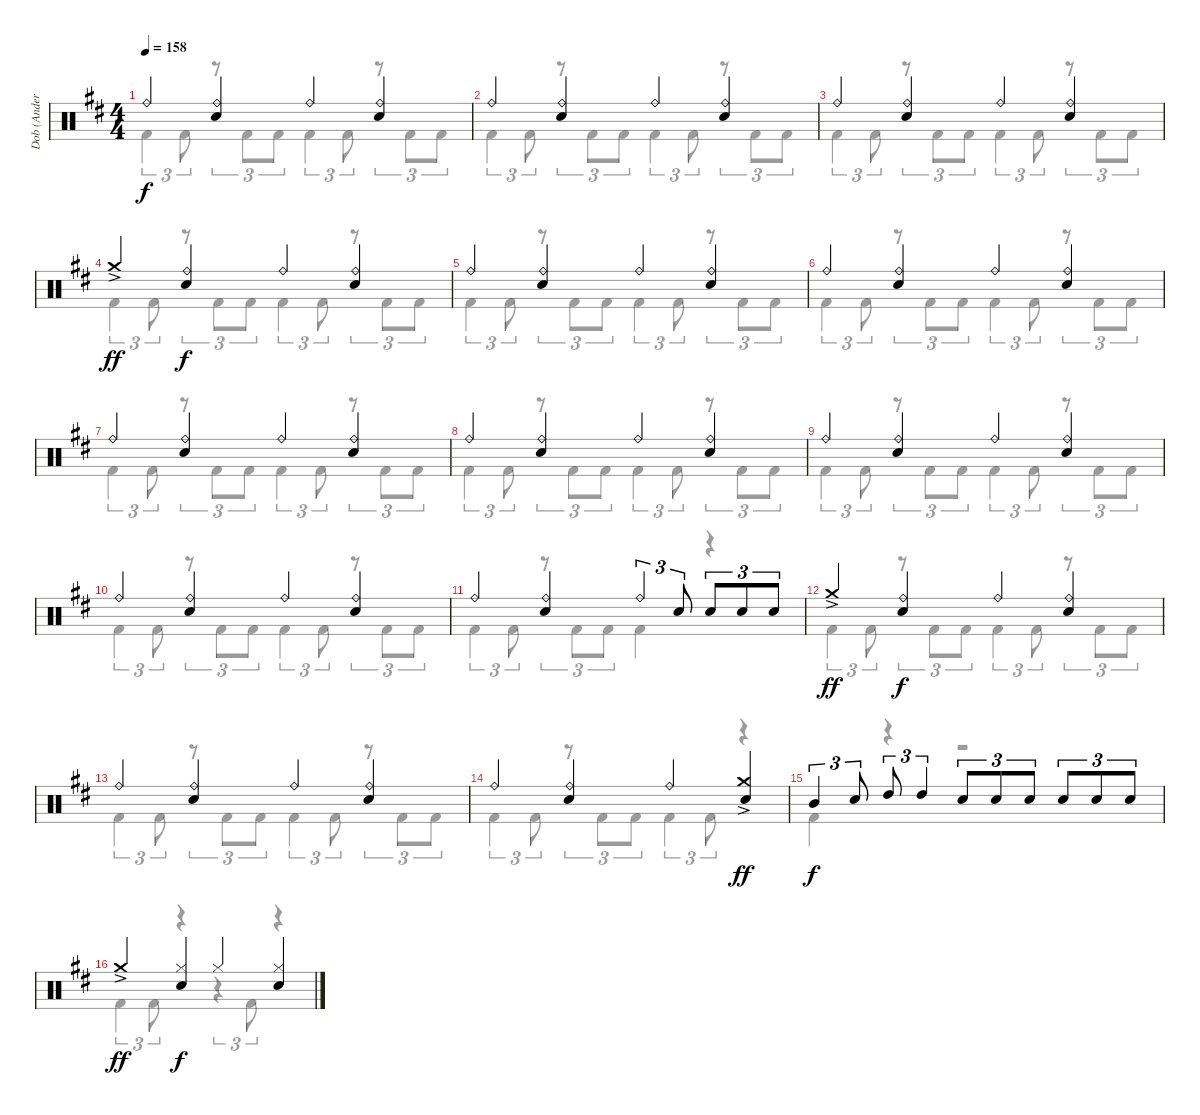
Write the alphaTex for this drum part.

\track ("Dob (Anders Johansson)" "Dob (Ander") {instrument percussion}
\staff {score}
\articulation defaults
\voice
\ts (4 4)
\tempo 158
\clef neutral
\ks d "Ride (bell)".4{dy f}
("Ride (bell)" "Electric Snare (hit)").4 "Ride (bell)".4 ("Ride (bell)" "Electric Snare (hit)").4 |
"Ride (bell)".4 ("Ride (bell)" "Electric Snare (hit)").4 "Ride (bell)".4 ("Ride (bell)" "Electric Snare (hit)").4 |
"Ride (bell)".4 ("Ride (bell)" "Electric Snare (hit)").4 "Ride (bell)".4 ("Ride (bell)" "Electric Snare (hit)").4 |
"Crash medium (hit)"{ac}.4{dy ff} ("Ride (bell)" "Electric Snare (hit)").4{dy f} "Ride (bell)".4 ("Ride (bell)" "Electric Snare (hit)").4 |
"Ride (bell)".4 ("Ride (bell)" "Electric Snare (hit)").4 "Ride (bell)".4 ("Ride (bell)" "Electric Snare (hit)").4 |
"Ride (bell)".4 ("Ride (bell)" "Electric Snare (hit)").4 "Ride (bell)".4 ("Ride (bell)" "Electric Snare (hit)").4 |
"Ride (bell)".4 ("Ride (bell)" "Electric Snare (hit)").4 "Ride (bell)".4 ("Ride (bell)" "Electric Snare (hit)").4 |
"Ride (bell)".4 ("Ride (bell)" "Electric Snare (hit)").4 "Ride (bell)".4 ("Ride (bell)" "Electric Snare (hit)").4 |
"Ride (bell)".4 ("Ride (bell)" "Electric Snare (hit)").4 "Ride (bell)".4 ("Ride (bell)" "Electric Snare (hit)").4 |
"Ride (bell)".4 ("Ride (bell)" "Electric Snare (hit)").4 "Ride (bell)".4 ("Ride (bell)" "Electric Snare (hit)").4 |
"Ride (bell)".4 ("Ride (bell)" "Electric Snare (hit)").4 "Ride (bell)".4{tu (3 2)} "Electric Snare (hit)".8{tu (3 2)} "Electric Snare (hit)".8{tu (3 2)} "Electric Snare (hit)".8{tu (3 2)} "Electric Snare (hit)".8{tu (3 2)} |
"Crash medium (hit)"{ac}.4{dy ff} ("Ride (bell)" "Electric Snare (hit)").4{dy f} "Ride (bell)".4 ("Ride (bell)" "Electric Snare (hit)").4 |
"Ride (bell)".4 ("Ride (bell)" "Electric Snare (hit)").4 "Ride (bell)".4 ("Ride (bell)" "Electric Snare (hit)").4 |
"Ride (bell)".4 ("Ride (bell)" "Electric Snare (hit)").4 "Ride (bell)".4 ("Crash medium (hit)"{ac} "Electric Snare (hit)").4{dy ff} |
"Mid Tom (hit)".4{tu (3 2) dy f} "Electric Snare (hit)".8{tu (3 2)} "High Tom (hit)".8{tu (3 2)} "High Tom (hit)".4{tu (3 2)} "Electric Snare (hit)".8{tu (3 2)} "Electric Snare (hit)".8{tu (3 2)} "Electric Snare (hit)".8{tu (3 2)} "Electric Snare (hit)".8{tu (3 2)} "Electric Snare (hit)".8{tu (3 2)} "Electric Snare (hit)".8{tu (3 2)} |
"Crash medium (hit)"{ac}.4{dy ff} ("Hi-Hat (closed)" "Electric Snare (hit)").4{dy f} "Hi-Hat (closed)".4 ("Hi-Hat (closed)" "Electric Snare (hit)").4
\voice
\clef neutral
\ottava regular
\simile none
\ks d "Kick (hit) 2".4{tu (3 2) dy f} "Kick (hit) 2".8{tu (3 2)}
r.8{tu (3 2)} "Kick (hit) 2".8{tu (3 2)} "Kick (hit) 2".8{tu (3 2)} "Kick (hit) 2".4{tu (3 2)} "Kick (hit) 2".8{tu (3 2)} r.8{tu (3 2)} "Kick (hit) 2".8{tu (3 2)} "Kick (hit) 2".8{tu (3 2)} |
"Kick (hit) 2".4{tu (3 2)} "Kick (hit) 2".8{tu (3 2)} r.8{tu (3 2)} "Kick (hit) 2".8{tu (3 2)} "Kick (hit) 2".8{tu (3 2)} "Kick (hit) 2".4{tu (3 2)} "Kick (hit) 2".8{tu (3 2)} r.8{tu (3 2)} "Kick (hit) 2".8{tu (3 2)} "Kick (hit) 2".8{tu (3 2)} |
"Kick (hit) 2".4{tu (3 2)} "Kick (hit) 2".8{tu (3 2)} r.8{tu (3 2)} "Kick (hit) 2".8{tu (3 2)} "Kick (hit) 2".8{tu (3 2)} "Kick (hit) 2".4{tu (3 2)} "Kick (hit) 2".8{tu (3 2)} r.8{tu (3 2)} "Kick (hit) 2".8{tu (3 2)} "Kick (hit) 2".8{tu (3 2)} |
"Kick (hit) 2".4{tu (3 2)} "Kick (hit) 2".8{tu (3 2)} r.8{tu (3 2)} "Kick (hit) 2".8{tu (3 2)} "Kick (hit) 2".8{tu (3 2)} "Kick (hit) 2".4{tu (3 2)} "Kick (hit) 2".8{tu (3 2)} r.8{tu (3 2)} "Kick (hit) 2".8{tu (3 2)} "Kick (hit) 2".8{tu (3 2)} |
"Kick (hit) 2".4{tu (3 2)} "Kick (hit) 2".8{tu (3 2)} r.8{tu (3 2)} "Kick (hit) 2".8{tu (3 2)} "Kick (hit) 2".8{tu (3 2)} "Kick (hit) 2".4{tu (3 2)} "Kick (hit) 2".8{tu (3 2)} r.8{tu (3 2)} "Kick (hit) 2".8{tu (3 2)} "Kick (hit) 2".8{tu (3 2)} |
"Kick (hit) 2".4{tu (3 2)} "Kick (hit) 2".8{tu (3 2)} r.8{tu (3 2)} "Kick (hit) 2".8{tu (3 2)} "Kick (hit) 2".8{tu (3 2)} "Kick (hit) 2".4{tu (3 2)} "Kick (hit) 2".8{tu (3 2)} r.8{tu (3 2)} "Kick (hit) 2".8{tu (3 2)} "Kick (hit) 2".8{tu (3 2)} |
"Kick (hit) 2".4{tu (3 2)} "Kick (hit) 2".8{tu (3 2)} r.8{tu (3 2)} "Kick (hit) 2".8{tu (3 2)} "Kick (hit) 2".8{tu (3 2)} "Kick (hit) 2".4{tu (3 2)} "Kick (hit) 2".8{tu (3 2)} r.8{tu (3 2)} "Kick (hit) 2".8{tu (3 2)} "Kick (hit) 2".8{tu (3 2)} |
"Kick (hit) 2".4{tu (3 2)} "Kick (hit) 2".8{tu (3 2)} r.8{tu (3 2)} "Kick (hit) 2".8{tu (3 2)} "Kick (hit) 2".8{tu (3 2)} "Kick (hit) 2".4{tu (3 2)} "Kick (hit) 2".8{tu (3 2)} r.8{tu (3 2)} "Kick (hit) 2".8{tu (3 2)} "Kick (hit) 2".8{tu (3 2)} |
"Kick (hit) 2".4{tu (3 2)} "Kick (hit) 2".8{tu (3 2)} r.8{tu (3 2)} "Kick (hit) 2".8{tu (3 2)} "Kick (hit) 2".8{tu (3 2)} "Kick (hit) 2".4{tu (3 2)} "Kick (hit) 2".8{tu (3 2)} r.8{tu (3 2)} "Kick (hit) 2".8{tu (3 2)} "Kick (hit) 2".8{tu (3 2)} |
"Kick (hit) 2".4{tu (3 2)} "Kick (hit) 2".8{tu (3 2)} r.8{tu (3 2)} "Kick (hit) 2".8{tu (3 2)} "Kick (hit) 2".8{tu (3 2)} "Kick (hit) 2".4{tu (3 2)} "Kick (hit) 2".8{tu (3 2)} r.8{tu (3 2)} "Kick (hit) 2".8{tu (3 2)} "Kick (hit) 2".8{tu (3 2)} |
"Kick (hit) 2".4{tu (3 2)} "Kick (hit) 2".8{tu (3 2)} r.8{tu (3 2)} "Kick (hit) 2".8{tu (3 2)} "Kick (hit) 2".8{tu (3 2)} "Kick (hit) 2".4 r.4 |
"Kick (hit) 2".4{tu (3 2)} "Kick (hit) 2".8{tu (3 2)} r.8{tu (3 2)} "Kick (hit) 2".8{tu (3 2)} "Kick (hit) 2".8{tu (3 2)} "Kick (hit) 2".4{tu (3 2)} "Kick (hit) 2".8{tu (3 2)} r.8{tu (3 2)} "Kick (hit) 2".8{tu (3 2)} "Kick (hit) 2".8{tu (3 2)} |
"Kick (hit) 2".4{tu (3 2)} "Kick (hit) 2".8{tu (3 2)} r.8{tu (3 2)} "Kick (hit) 2".8{tu (3 2)} "Kick (hit) 2".8{tu (3 2)} "Kick (hit) 2".4{tu (3 2)} "Kick (hit) 2".8{tu (3 2)} r.8{tu (3 2)} "Kick (hit) 2".8{tu (3 2)} "Kick (hit) 2".8{tu (3 2)} |
"Kick (hit) 2".4{tu (3 2)} "Kick (hit) 2".8{tu (3 2)} r.8{tu (3 2)} "Kick (hit) 2".8{tu (3 2)} "Kick (hit) 2".8{tu (3 2)} "Kick (hit) 2".4{tu (3 2)} "Kick (hit) 2".8{tu (3 2)} r.4 |
"Kick (hit) 2".4 r.4 r.2 |
"Kick (hit) 2".4{tu (3 2)} "Kick (hit) 2".8{tu (3 2)} r.4 r.4{tu (3 2)} "Kick (hit) 2".8{tu (3 2)} r.4
